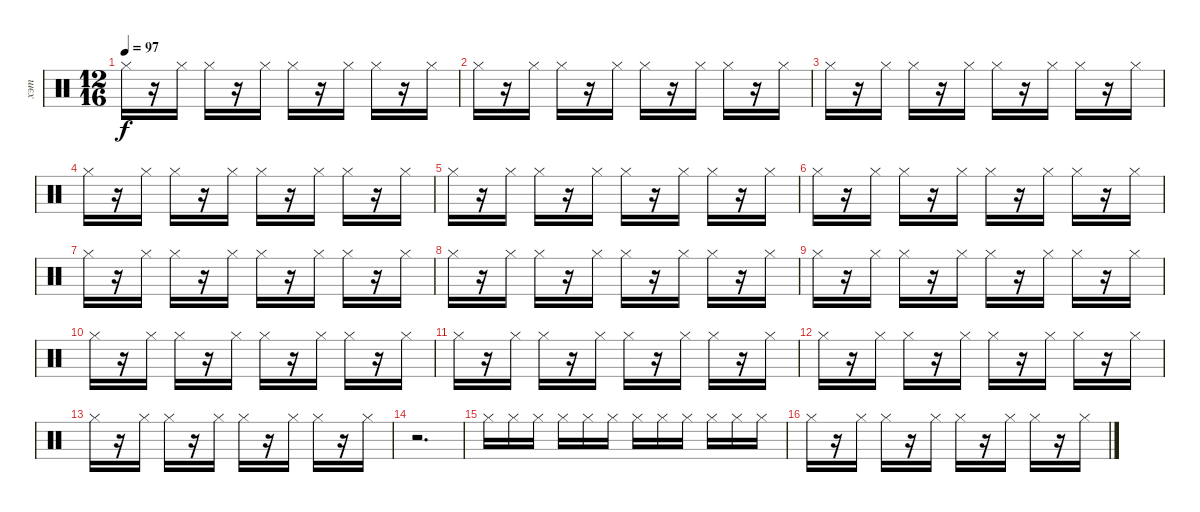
\track ("хэт" "хэт") {instrument percussion}
\staff {score}
\articulation defaults
\ts (12 16)
\tempo 97
\clef neutral
\ks c "Hi-Hat (closed)".16{dy f}
r.16 "Hi-Hat (closed)".16 "Hi-Hat (closed)".16 r.16 "Hi-Hat (closed)".16 "Hi-Hat (closed)".16 r.16 "Hi-Hat (closed)".16 "Hi-Hat (closed)".16 r.16 "Hi-Hat (closed)".16 |
"Hi-Hat (closed)".16 r.16 "Hi-Hat (closed)".16 "Hi-Hat (closed)".16 r.16 "Hi-Hat (closed)".16 "Hi-Hat (closed)".16 r.16 "Hi-Hat (closed)".16 "Hi-Hat (closed)".16 r.16 "Hi-Hat (closed)".16 |
"Hi-Hat (closed)".16 r.16 "Hi-Hat (closed)".16 "Hi-Hat (closed)".16 r.16 "Hi-Hat (closed)".16 "Hi-Hat (closed)".16 r.16 "Hi-Hat (closed)".16 "Hi-Hat (closed)".16 r.16 "Hi-Hat (closed)".16 |
"Hi-Hat (closed)".16 r.16 "Hi-Hat (closed)".16 "Hi-Hat (closed)".16 r.16 "Hi-Hat (closed)".16 "Hi-Hat (closed)".16 r.16 "Hi-Hat (closed)".16 "Hi-Hat (closed)".16 r.16 "Hi-Hat (closed)".16 |
"Hi-Hat (closed)".16 r.16 "Hi-Hat (closed)".16 "Hi-Hat (closed)".16 r.16 "Hi-Hat (closed)".16 "Hi-Hat (closed)".16 r.16 "Hi-Hat (closed)".16 "Hi-Hat (closed)".16 r.16 "Hi-Hat (closed)".16 |
"Hi-Hat (closed)".16 r.16 "Hi-Hat (closed)".16 "Hi-Hat (closed)".16 r.16 "Hi-Hat (closed)".16 "Hi-Hat (closed)".16 r.16 "Hi-Hat (closed)".16 "Hi-Hat (closed)".16 r.16 "Hi-Hat (closed)".16 |
"Hi-Hat (closed)".16 r.16 "Hi-Hat (closed)".16 "Hi-Hat (closed)".16 r.16 "Hi-Hat (closed)".16 "Hi-Hat (closed)".16 r.16 "Hi-Hat (closed)".16 "Hi-Hat (closed)".16 r.16 "Hi-Hat (closed)".16 |
"Hi-Hat (closed)".16 r.16 "Hi-Hat (closed)".16 "Hi-Hat (closed)".16 r.16 "Hi-Hat (closed)".16 "Hi-Hat (closed)".16 r.16 "Hi-Hat (closed)".16 "Hi-Hat (closed)".16 r.16 "Hi-Hat (closed)".16 |
"Hi-Hat (closed)".16 r.16 "Hi-Hat (closed)".16 "Hi-Hat (closed)".16 r.16 "Hi-Hat (closed)".16 "Hi-Hat (closed)".16 r.16 "Hi-Hat (closed)".16 "Hi-Hat (closed)".16 r.16 "Hi-Hat (closed)".16 |
"Hi-Hat (closed)".16 r.16 "Hi-Hat (closed)".16 "Hi-Hat (closed)".16 r.16 "Hi-Hat (closed)".16 "Hi-Hat (closed)".16 r.16 "Hi-Hat (closed)".16 "Hi-Hat (closed)".16 r.16 "Hi-Hat (closed)".16 |
"Hi-Hat (closed)".16 r.16 "Hi-Hat (closed)".16 "Hi-Hat (closed)".16 r.16 "Hi-Hat (closed)".16 "Hi-Hat (closed)".16 r.16 "Hi-Hat (closed)".16 "Hi-Hat (closed)".16 r.16 "Hi-Hat (closed)".16 |
"Hi-Hat (closed)".16 r.16 "Hi-Hat (closed)".16 "Hi-Hat (closed)".16 r.16 "Hi-Hat (closed)".16 "Hi-Hat (closed)".16 r.16 "Hi-Hat (closed)".16 "Hi-Hat (closed)".16 r.16 "Hi-Hat (closed)".16 |
"Hi-Hat (closed)".16 r.16 "Hi-Hat (closed)".16 "Hi-Hat (closed)".16 r.16 "Hi-Hat (closed)".16 "Hi-Hat (closed)".16 r.16 "Hi-Hat (closed)".16 "Hi-Hat (closed)".16 r.16 "Hi-Hat (closed)".16 |
r.2{d} |
"Hi-Hat (closed)".16 "Hi-Hat (closed)".16 "Hi-Hat (closed)".16 "Hi-Hat (closed)".16 "Hi-Hat (closed)".16 "Hi-Hat (closed)".16 "Hi-Hat (closed)".16 "Hi-Hat (closed)".16 "Hi-Hat (closed)".16 "Hi-Hat (closed)".16 "Hi-Hat (closed)".16 "Hi-Hat (closed)".16 |
"Hi-Hat (closed)".16 r.16 "Hi-Hat (closed)".16 "Hi-Hat (closed)".16 r.16 "Hi-Hat (closed)".16 "Hi-Hat (closed)".16 r.16 "Hi-Hat (closed)".16 "Hi-Hat (closed)".16 r.16 "Hi-Hat (closed)".16
